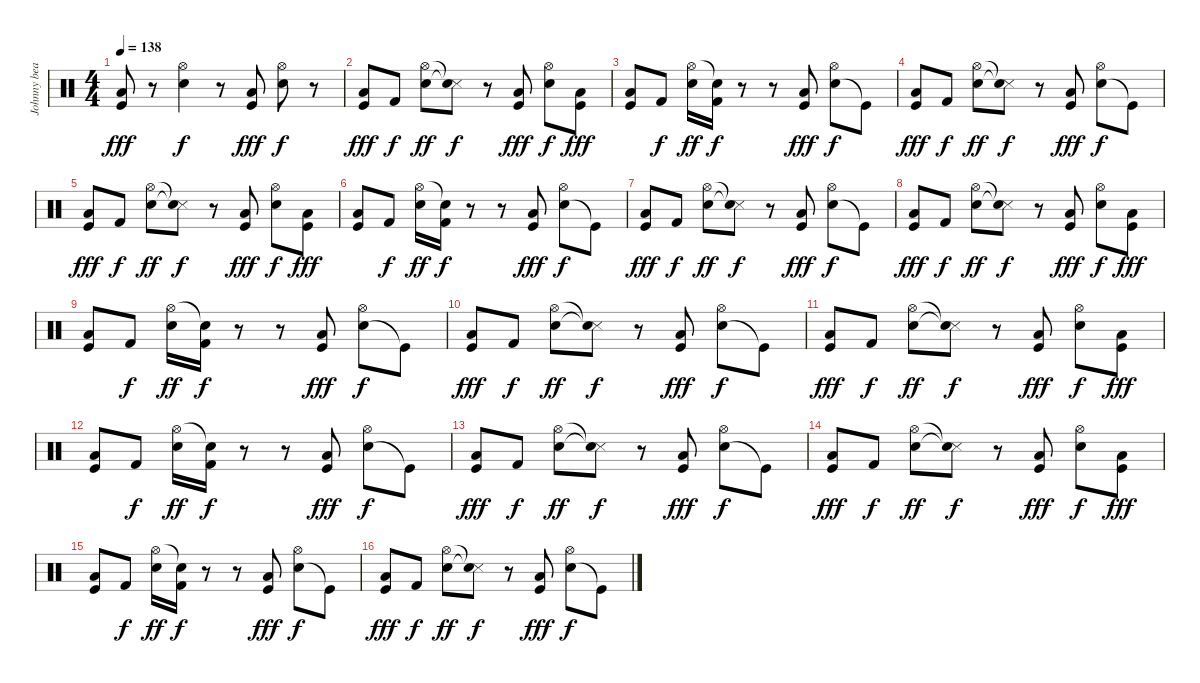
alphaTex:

\track ("Johnny beat" "Johnny bea") {instrument percussion}
\staff {score}
\articulation defaults
\ts (4 4)
\tempo 138
\clef neutral
\ks c
("Low Tom (hit)" "Kick (hit)").8{dy fff} r.8 ("Electric Snare (hit)" "Hi-Hat (open)").4{dy f} r.8 ("Low Tom (hit)" "Kick (hit)").8{dy fff} ("Electric Snare (hit)" "Hi-Hat (open)").8{dy f} r.8 |
("Low Tom (hit)" "Kick (hit)").8{dy fff} "Kick (hit) 2".8{dy f} ("Electric Snare (hit)" "Hi-Hat (open)").8{dy ff} ("Snare (side stick) 3"{t} "Snare (hit)"{t}).8{dy f} r.8 ("Low Tom (hit)" "Kick (hit)").8{dy fff} ("Electric Snare (hit)" "Hi-Hat (open)").8{dy f} ("Low Tom (hit)" "Kick (hit)").8{dy fff} |
("Low Tom (hit)" "Kick (hit)").8 "Kick (hit) 2".8{dy f} ("Electric Snare (hit)" "Hi-Hat (open)").16{dy ff} ("Kick (hit) 2" "Snare (hit)"{t}).16{dy f} r.8 r.8 ("Low Tom (hit)" "Kick (hit)").8{dy fff} ("Electric Snare (hit)" "Hi-Hat (open)").8{dy f} "Kick (hit)"{t}.8 |
("Low Tom (hit)" "Kick (hit)").8{dy fff} "Kick (hit) 2".8{dy f} ("Electric Snare (hit)" "Hi-Hat (open)").8{dy ff} ("Snare (side stick) 3"{t} "Snare (hit)"{t}).8{dy f} r.8 ("Low Tom (hit)" "Kick (hit)").8{dy fff} ("Electric Snare (hit)" "Hi-Hat (open)").8{dy f} "Kick (hit)"{t}.8 |
("Low Tom (hit)" "Kick (hit)").8{dy fff} "Kick (hit) 2".8{dy f} ("Electric Snare (hit)" "Hi-Hat (open)").8{dy ff} ("Snare (side stick) 3"{t} "Snare (hit)"{t}).8{dy f} r.8 ("Low Tom (hit)" "Kick (hit)").8{dy fff} ("Electric Snare (hit)" "Hi-Hat (open)").8{dy f} ("Low Tom (hit)" "Kick (hit)").8{dy fff} |
("Low Tom (hit)" "Kick (hit)").8 "Kick (hit) 2".8{dy f} ("Electric Snare (hit)" "Hi-Hat (open)").16{dy ff} ("Kick (hit) 2" "Snare (hit)"{t}).16{dy f} r.8 r.8 ("Low Tom (hit)" "Kick (hit)").8{dy fff} ("Electric Snare (hit)" "Hi-Hat (open)").8{dy f} "Kick (hit)"{t}.8 |
("Low Tom (hit)" "Kick (hit)").8{dy fff} "Kick (hit) 2".8{dy f} ("Electric Snare (hit)" "Hi-Hat (open)").8{dy ff} ("Snare (side stick) 3"{t} "Snare (hit)"{t}).8{dy f} r.8 ("Low Tom (hit)" "Kick (hit)").8{dy fff} ("Electric Snare (hit)" "Hi-Hat (open)").8{dy f} "Kick (hit)"{t}.8 |
("Low Tom (hit)" "Kick (hit)").8{dy fff} "Kick (hit) 2".8{dy f} ("Electric Snare (hit)" "Hi-Hat (open)").8{dy ff} ("Snare (side stick) 3"{t} "Snare (hit)"{t}).8{dy f} r.8 ("Low Tom (hit)" "Kick (hit)").8{dy fff} ("Electric Snare (hit)" "Hi-Hat (open)").8{dy f} ("Low Tom (hit)" "Kick (hit)").8{dy fff} |
("Low Tom (hit)" "Kick (hit)").8 "Kick (hit) 2".8{dy f} ("Electric Snare (hit)" "Hi-Hat (open)").16{dy ff} ("Kick (hit) 2" "Snare (hit)"{t}).16{dy f} r.8 r.8 ("Low Tom (hit)" "Kick (hit)").8{dy fff} ("Electric Snare (hit)" "Hi-Hat (open)").8{dy f} "Kick (hit)"{t}.8 |
("Low Tom (hit)" "Kick (hit)").8{dy fff} "Kick (hit) 2".8{dy f} ("Electric Snare (hit)" "Hi-Hat (open)").8{dy ff} ("Snare (side stick) 3"{t} "Snare (hit)"{t}).8{dy f} r.8 ("Low Tom (hit)" "Kick (hit)").8{dy fff} ("Electric Snare (hit)" "Hi-Hat (open)").8{dy f} "Kick (hit)"{t}.8 |
("Low Tom (hit)" "Kick (hit)").8{dy fff} "Kick (hit) 2".8{dy f} ("Electric Snare (hit)" "Hi-Hat (open)").8{dy ff} ("Snare (side stick) 3"{t} "Snare (hit)"{t}).8{dy f} r.8 ("Low Tom (hit)" "Kick (hit)").8{dy fff} ("Electric Snare (hit)" "Hi-Hat (open)").8{dy f} ("Low Tom (hit)" "Kick (hit)").8{dy fff} |
("Low Tom (hit)" "Kick (hit)").8 "Kick (hit) 2".8{dy f} ("Electric Snare (hit)" "Hi-Hat (open)").16{dy ff} ("Kick (hit) 2" "Snare (hit)"{t}).16{dy f} r.8 r.8 ("Low Tom (hit)" "Kick (hit)").8{dy fff} ("Electric Snare (hit)" "Hi-Hat (open)").8{dy f} "Kick (hit)"{t}.8 |
("Low Tom (hit)" "Kick (hit)").8{dy fff} "Kick (hit) 2".8{dy f} ("Electric Snare (hit)" "Hi-Hat (open)").8{dy ff} ("Snare (side stick) 3"{t} "Snare (hit)"{t}).8{dy f} r.8 ("Low Tom (hit)" "Kick (hit)").8{dy fff} ("Electric Snare (hit)" "Hi-Hat (open)").8{dy f} "Kick (hit)"{t}.8 |
("Low Tom (hit)" "Kick (hit)").8{dy fff} "Kick (hit) 2".8{dy f} ("Electric Snare (hit)" "Hi-Hat (open)").8{dy ff} ("Snare (side stick) 3"{t} "Snare (hit)"{t}).8{dy f} r.8 ("Low Tom (hit)" "Kick (hit)").8{dy fff} ("Electric Snare (hit)" "Hi-Hat (open)").8{dy f} ("Low Tom (hit)" "Kick (hit)").8{dy fff} |
("Low Tom (hit)" "Kick (hit)").8 "Kick (hit) 2".8{dy f} ("Electric Snare (hit)" "Hi-Hat (open)").16{dy ff} ("Kick (hit) 2" "Snare (hit)"{t}).16{dy f} r.8 r.8 ("Low Tom (hit)" "Kick (hit)").8{dy fff} ("Electric Snare (hit)" "Hi-Hat (open)").8{dy f} "Kick (hit)"{t}.8 |
("Low Tom (hit)" "Kick (hit)").8{dy fff} "Kick (hit) 2".8{dy f} ("Electric Snare (hit)" "Hi-Hat (open)").8{dy ff} ("Snare (side stick) 3"{t} "Snare (hit)"{t}).8{dy f} r.8 ("Low Tom (hit)" "Kick (hit)").8{dy fff} ("Electric Snare (hit)" "Hi-Hat (open)").8{dy f} "Kick (hit)"{t}.8
